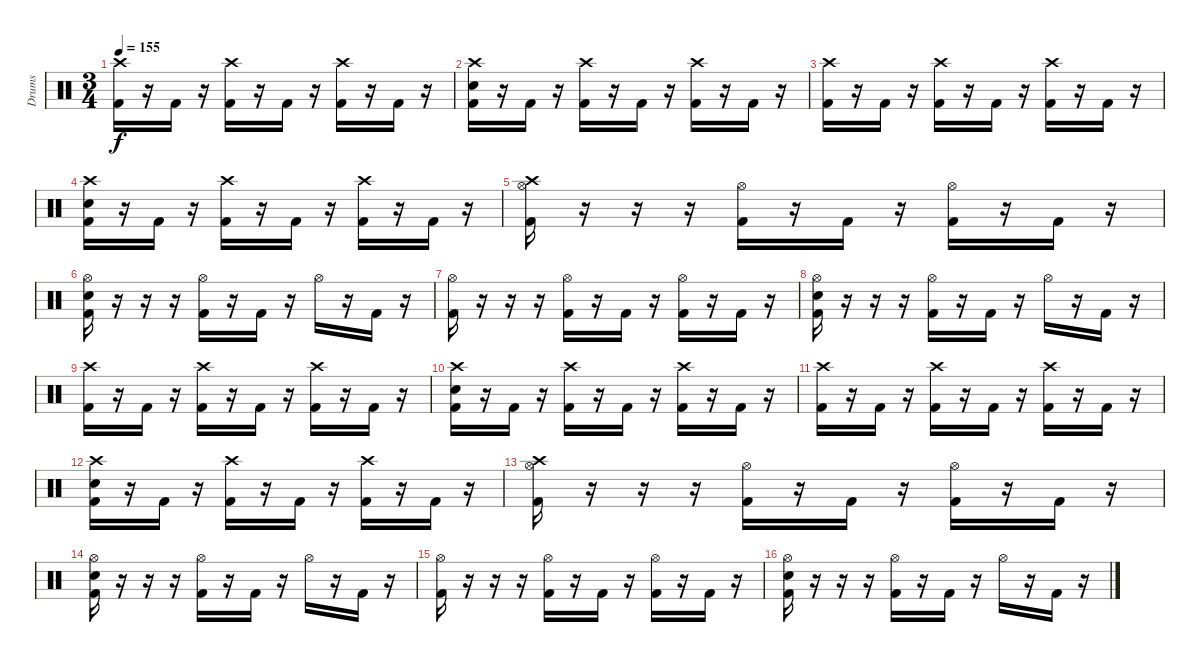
\track ("Drums" "Drums") {instrument percussion}
\staff {score}
\articulation defaults
\ts (3 4)
\tempo 155
\clef neutral
\ks c
("Crash high (hit)" "Kick (hit) 2").16{dy f} r.16 "Kick (hit) 2".16 r.16 ("Crash high (hit)" "Kick (hit) 2").16 r.16 "Kick (hit) 2".16 r.16 ("Crash high (hit)" "Kick (hit) 2").16 r.16 "Kick (hit) 2".16 r.16 |
("Crash high (hit)" "Snare (hit) 2" "Kick (hit) 2").16 r.16 "Kick (hit) 2".16 r.16 ("Crash high (hit)" "Kick (hit) 2").16 r.16 "Kick (hit) 2".16 r.16 ("Crash high (hit)" "Kick (hit) 2").16 r.16 "Kick (hit) 2".16 r.16 |
("Crash high (hit)" "Kick (hit) 2").16 r.16 "Kick (hit) 2".16 r.16 ("Crash high (hit)" "Kick (hit) 2").16 r.16 "Kick (hit) 2".16 r.16 ("Crash high (hit)" "Kick (hit) 2").16 r.16 "Kick (hit) 2".16 r.16 |
("Crash high (hit)" "Snare (hit) 2" "Kick (hit) 2").16 r.16 "Kick (hit) 2".16 r.16 ("Crash high (hit)" "Kick (hit) 2").16 r.16 "Kick (hit) 2".16 r.16 ("Crash high (hit)" "Kick (hit) 2").16 r.16 "Kick (hit) 2".16 r.16 |
("Crash high (hit)" "Hi-Hat (open)" "Kick (hit) 2").16 r.16 r.16 r.16 ("Hi-Hat (open)" "Kick (hit) 2").16 r.16 "Kick (hit) 2".16 r.16 ("Hi-Hat (open)" "Kick (hit) 2").16 r.16 "Kick (hit) 2".16 r.16 |
("Hi-Hat (open)" "Snare (hit) 2" "Kick (hit) 2").16 r.16 r.16 r.16 ("Hi-Hat (open)" "Kick (hit) 2").16 r.16 "Kick (hit) 2".16 r.16 "Hi-Hat (open)".16 r.16 "Kick (hit) 2".16 r.16 |
("Hi-Hat (open)" "Kick (hit) 2").16 r.16 r.16 r.16 ("Hi-Hat (open)" "Kick (hit) 2").16 r.16 "Kick (hit) 2".16 r.16 ("Hi-Hat (open)" "Kick (hit) 2").16 r.16 "Kick (hit) 2".16 r.16 |
("Hi-Hat (open)" "Snare (hit) 2" "Kick (hit) 2").16 r.16 r.16 r.16 ("Hi-Hat (open)" "Kick (hit) 2").16 r.16 "Kick (hit) 2".16 r.16 "Hi-Hat (open)".16 r.16 "Kick (hit) 2".16 r.16 |
("Crash high (hit)" "Kick (hit) 2").16 r.16 "Kick (hit) 2".16 r.16 ("Crash high (hit)" "Kick (hit) 2").16 r.16 "Kick (hit) 2".16 r.16 ("Crash high (hit)" "Kick (hit) 2").16 r.16 "Kick (hit) 2".16 r.16 |
("Crash high (hit)" "Snare (hit) 2" "Kick (hit) 2").16 r.16 "Kick (hit) 2".16 r.16 ("Crash high (hit)" "Kick (hit) 2").16 r.16 "Kick (hit) 2".16 r.16 ("Crash high (hit)" "Kick (hit) 2").16 r.16 "Kick (hit) 2".16 r.16 |
("Crash high (hit)" "Kick (hit) 2").16 r.16 "Kick (hit) 2".16 r.16 ("Crash high (hit)" "Kick (hit) 2").16 r.16 "Kick (hit) 2".16 r.16 ("Crash high (hit)" "Kick (hit) 2").16 r.16 "Kick (hit) 2".16 r.16 |
("Crash high (hit)" "Snare (hit) 2" "Kick (hit) 2").16 r.16 "Kick (hit) 2".16 r.16 ("Crash high (hit)" "Kick (hit) 2").16 r.16 "Kick (hit) 2".16 r.16 ("Crash high (hit)" "Kick (hit) 2").16 r.16 "Kick (hit) 2".16 r.16 |
("Crash high (hit)" "Hi-Hat (open)" "Kick (hit) 2").16 r.16 r.16 r.16 ("Hi-Hat (open)" "Kick (hit) 2").16 r.16 "Kick (hit) 2".16 r.16 ("Hi-Hat (open)" "Kick (hit) 2").16 r.16 "Kick (hit) 2".16 r.16 |
("Hi-Hat (open)" "Snare (hit) 2" "Kick (hit) 2").16 r.16 r.16 r.16 ("Hi-Hat (open)" "Kick (hit) 2").16 r.16 "Kick (hit) 2".16 r.16 "Hi-Hat (open)".16 r.16 "Kick (hit) 2".16 r.16 |
("Hi-Hat (open)" "Kick (hit) 2").16 r.16 r.16 r.16 ("Hi-Hat (open)" "Kick (hit) 2").16 r.16 "Kick (hit) 2".16 r.16 ("Hi-Hat (open)" "Kick (hit) 2").16 r.16 "Kick (hit) 2".16 r.16 |
("Hi-Hat (open)" "Snare (hit) 2" "Kick (hit) 2").16 r.16 r.16 r.16 ("Hi-Hat (open)" "Kick (hit) 2").16 r.16 "Kick (hit) 2".16 r.16 "Hi-Hat (open)".16 r.16 "Kick (hit) 2".16 r.16
